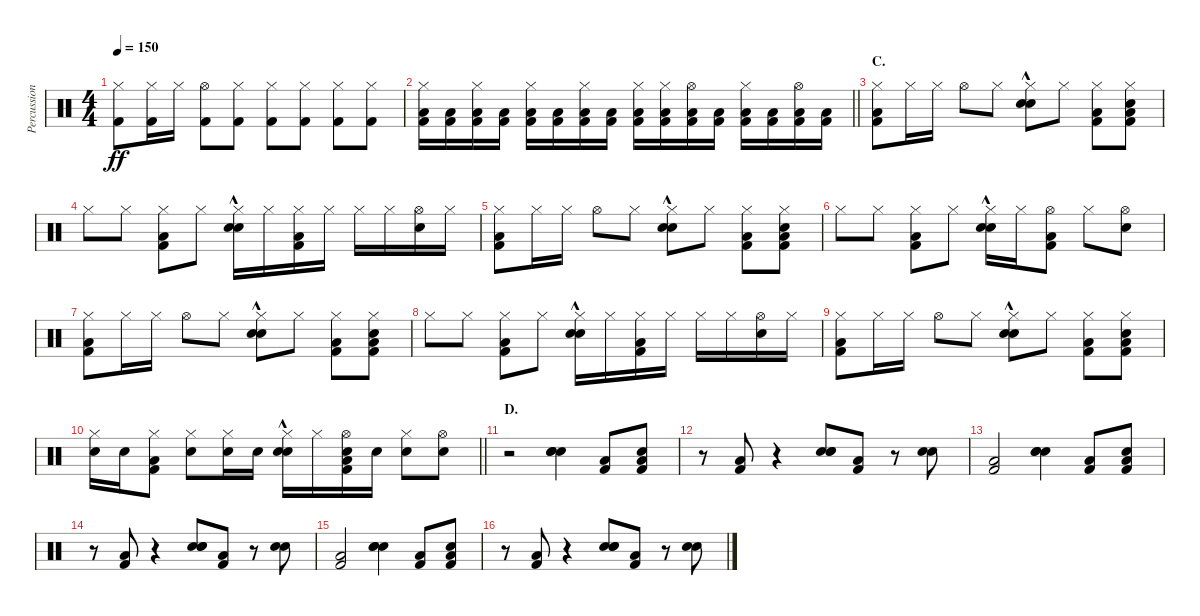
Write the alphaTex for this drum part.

\track ("Percussion" "Percussion") {instrument percussion}
\staff {score}
\articulation defaults
\ts (4 4)
\tempo 150
\clef neutral
\ks c
("Hi-Hat (closed)" "Kick (hit) 2").8{dy ff} ("Hi-Hat (closed)" "Kick (hit) 2").16 "Hi-Hat (closed)".16 ("Hi-Hat (open)" "Kick (hit) 2").8 ("Hi-Hat (closed)" "Kick (hit) 2").8 ("Hi-Hat (closed)" "Kick (hit) 2").8 ("Hi-Hat (closed)" "Kick (hit) 2").8 ("Hi-Hat (closed)" "Kick (hit) 2").8 ("Hi-Hat (closed)" "Kick (hit) 2").8 |
\barLineRight lightlight
("Hi-Hat (closed)" "Low Floor Tom (hit)" "Kick (hit) 2").16 ("Low Floor Tom (hit)" "Kick (hit) 2").16 ("Hi-Hat (closed)" "Low Floor Tom (hit)" "Kick (hit) 2").16 ("Low Floor Tom (hit)" "Kick (hit) 2").16 ("Hi-Hat (closed)" "Low Floor Tom (hit)" "Kick (hit) 2").16 ("Low Floor Tom (hit)" "Kick (hit) 2").16 ("Hi-Hat (closed)" "Low Floor Tom (hit)" "Kick (hit) 2").16 ("Low Floor Tom (hit)" "Kick (hit) 2").16 ("Hi-Hat (closed)" "Low Floor Tom (hit)" "Kick (hit) 2").16 ("Hi-Hat (closed)" "Low Floor Tom (hit)" "Kick (hit) 2").16 ("Hi-Hat (open)" "Low Floor Tom (hit)" "Kick (hit) 2").16 ("Low Floor Tom (hit)" "Kick (hit) 2").16 ("Hi-Hat (closed)" "Low Floor Tom (hit)" "Kick (hit) 2").16 ("Low Floor Tom (hit)" "Kick (hit) 2").16 ("Hi-Hat (open)" "Low Floor Tom (hit)" "Kick (hit) 2").16 ("Low Floor Tom (hit)" "Kick (hit) 2").16 |
\section ("" "C.")
("Hi-Hat (closed)" "Low Floor Tom (hit)" "Kick (hit) 2").8 "Hi-Hat (closed)".16 "Hi-Hat (closed)".16 "Hi-Hat (open)".8 "Hi-Hat (closed)".8 ("Hand Clap (hit)"{hac} "Hi-Hat (closed)" "Electric Snare (hit)").8 "Hi-Hat (closed)".8 ("Hi-Hat (closed)" "Low Floor Tom (hit)" "Kick (hit) 2").8 ("Hi-Hat (closed)" "Electric Snare (hit)" "Low Floor Tom (hit)" "Kick (hit) 2").8 |
"Hi-Hat (closed)".8 "Hi-Hat (closed)".8 ("Hi-Hat (closed)" "Low Floor Tom (hit)" "Kick (hit) 2").8 "Hi-Hat (closed)".8 ("Hand Clap (hit)"{hac} "Hi-Hat (closed)" "Electric Snare (hit)").16 "Hi-Hat (closed)".16 ("Hi-Hat (closed)" "Low Floor Tom (hit)" "Kick (hit) 2").16 "Hi-Hat (closed)".16 "Hi-Hat (closed)".16 "Hi-Hat (closed)".16 ("Hi-Hat (open)" "Electric Snare (hit)").16 "Hi-Hat (closed)".16 |
("Hi-Hat (closed)" "Low Floor Tom (hit)" "Kick (hit) 2").8 "Hi-Hat (closed)".16 "Hi-Hat (closed)".16 "Hi-Hat (open)".8 "Hi-Hat (closed)".8 ("Hand Clap (hit)"{hac} "Hi-Hat (closed)" "Electric Snare (hit)").8 "Hi-Hat (closed)".8 ("Hi-Hat (closed)" "Low Floor Tom (hit)" "Kick (hit) 2").8 ("Hi-Hat (closed)" "Electric Snare (hit)" "Low Floor Tom (hit)" "Kick (hit) 2").8 |
"Hi-Hat (closed)".8 "Hi-Hat (closed)".8 ("Hi-Hat (closed)" "Low Floor Tom (hit)" "Kick (hit) 2").8 "Hi-Hat (closed)".8 ("Hand Clap (hit)"{hac} "Hi-Hat (closed)" "Electric Snare (hit)").16 "Hi-Hat (closed)".16 ("Hi-Hat (open)" "Low Floor Tom (hit)" "Kick (hit) 2").8 "Hi-Hat (closed)".8 ("Hi-Hat (open)" "Electric Snare (hit)").8 |
("Hi-Hat (closed)" "Low Floor Tom (hit)" "Kick (hit) 2").8 "Hi-Hat (closed)".16 "Hi-Hat (closed)".16 "Hi-Hat (open)".8 "Hi-Hat (closed)".8 ("Hand Clap (hit)"{hac} "Hi-Hat (closed)" "Electric Snare (hit)").8 "Hi-Hat (closed)".8 ("Hi-Hat (closed)" "Low Floor Tom (hit)" "Kick (hit) 2").8 ("Hi-Hat (closed)" "Electric Snare (hit)" "Low Floor Tom (hit)" "Kick (hit) 2").8 |
"Hi-Hat (closed)".8 "Hi-Hat (closed)".8 ("Hi-Hat (closed)" "Low Floor Tom (hit)" "Kick (hit) 2").8 "Hi-Hat (closed)".8 ("Hand Clap (hit)"{hac} "Hi-Hat (closed)" "Electric Snare (hit)").16 "Hi-Hat (closed)".16 ("Hi-Hat (closed)" "Low Floor Tom (hit)" "Kick (hit) 2").16 "Hi-Hat (closed)".16 "Hi-Hat (closed)".16 "Hi-Hat (closed)".16 ("Hi-Hat (open)" "Electric Snare (hit)").16 "Hi-Hat (closed)".16 |
("Hi-Hat (closed)" "Low Floor Tom (hit)" "Kick (hit) 2").8 "Hi-Hat (closed)".16 "Hi-Hat (closed)".16 "Hi-Hat (open)".8 "Hi-Hat (closed)".8 ("Hand Clap (hit)"{hac} "Hi-Hat (closed)" "Electric Snare (hit)").8 "Hi-Hat (closed)".8 ("Hi-Hat (closed)" "Low Floor Tom (hit)" "Kick (hit) 2").8 ("Hi-Hat (closed)" "Electric Snare (hit)" "Low Floor Tom (hit)" "Kick (hit) 2").8 |
\barLineRight lightlight
("Hi-Hat (closed)" "Electric Snare (hit)").16 "Electric Snare (hit)".16 ("Hi-Hat (closed)" "Low Floor Tom (hit)" "Kick (hit) 2").8 ("Hi-Hat (closed)" "Electric Snare (hit)").8 ("Hi-Hat (closed)" "Electric Snare (hit)").16 "Electric Snare (hit)".16 ("Hand Clap (hit)"{hac} "Hi-Hat (closed)" "Electric Snare (hit)").16 "Hi-Hat (closed)".16 ("Hi-Hat (open)" "Electric Snare (hit)" "Low Floor Tom (hit)" "Kick (hit) 2").16 "Electric Snare (hit)".16 ("Hi-Hat (closed)" "Electric Snare (hit)").8 ("Hi-Hat (open)" "Electric Snare (hit)").8 |
\section ("" "D.")
r.2 ("Hand Clap (hit)" "Electric Snare (hit)" "Snare (hit) 2").4 ("Low Floor Tom (hit)" "Kick (hit) 2").8 ("Electric Snare (hit)" "Low Floor Tom (hit)" "Kick (hit) 2").8 |
r.8 ("Low Floor Tom (hit)" "Kick (hit) 2").8 r.4 ("Hand Clap (hit)" "Electric Snare (hit)" "Snare (hit) 2").8 ("Low Floor Tom (hit)" "Kick (hit) 2").8 r.8 ("Electric Snare (hit)" "Electric Snare (hit)").8{bu 60} |
("Low Floor Tom (hit)" "Kick (hit) 2").2 ("Hand Clap (hit)" "Electric Snare (hit)" "Snare (hit) 2").4 ("Low Floor Tom (hit)" "Kick (hit) 2").8 ("Electric Snare (hit)" "Low Floor Tom (hit)" "Kick (hit) 2").8 |
r.8 ("Low Floor Tom (hit)" "Kick (hit) 2").8 r.4 ("Hand Clap (hit)" "Electric Snare (hit)" "Snare (hit) 2").8 ("Low Floor Tom (hit)" "Kick (hit) 2").8 r.8 ("Electric Snare (hit)" "Electric Snare (hit)").8{bu 60} |
("Low Floor Tom (hit)" "Kick (hit) 2").2 ("Hand Clap (hit)" "Electric Snare (hit)" "Snare (hit) 2").4 ("Low Floor Tom (hit)" "Kick (hit) 2").8 ("Electric Snare (hit)" "Low Floor Tom (hit)" "Kick (hit) 2").8 |
r.8 ("Low Floor Tom (hit)" "Kick (hit) 2").8 r.4 ("Hand Clap (hit)" "Electric Snare (hit)" "Snare (hit) 2").8 ("Low Floor Tom (hit)" "Kick (hit) 2").8 r.8 ("Electric Snare (hit)" "Electric Snare (hit)").8{bu 60}
